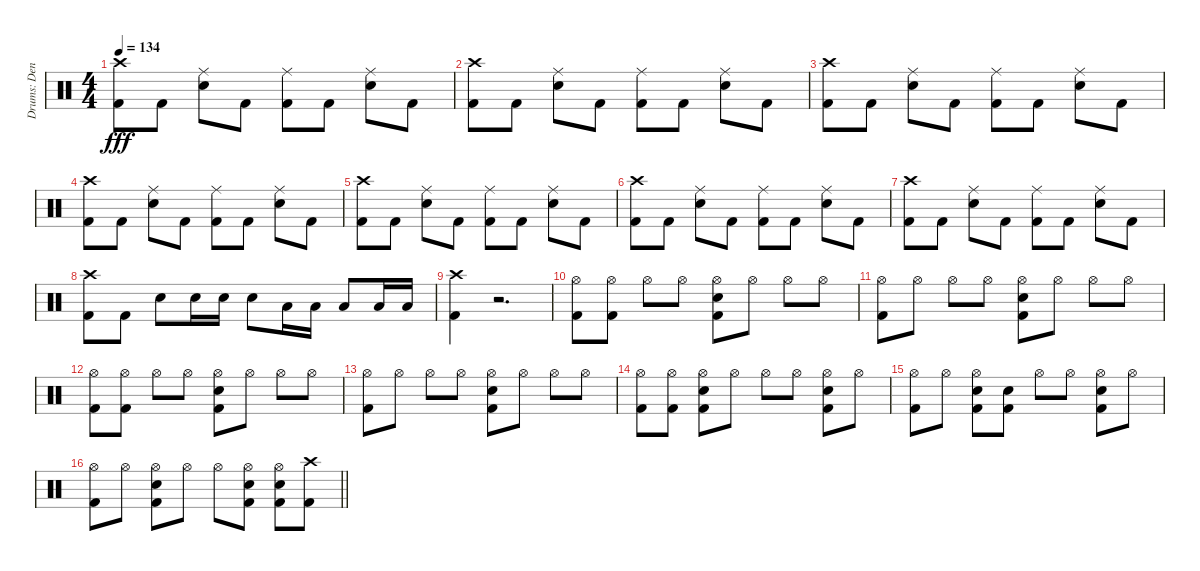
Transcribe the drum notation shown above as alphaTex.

\track ("Drums: Denny" "Drums: Den") {instrument percussion}
\staff {score}
\articulation defaults
\ts (4 4)
\tempo 134
\clef neutral
\ks c
("Crash high (hit)" "Kick (hit) 2").8{dy fff} "Kick (hit) 2".8 ("Ride (middle)" "Snare (hit) 2").8 "Kick (hit) 2".8 ("Ride (middle)" "Kick (hit) 2").8 "Kick (hit) 2".8 ("Ride (middle)" "Snare (hit) 2").8 "Kick (hit) 2".8 |
("Crash high (hit)" "Kick (hit) 2").8 "Kick (hit) 2".8 ("Ride (middle)" "Snare (hit) 2").8 "Kick (hit) 2".8 ("Ride (middle)" "Kick (hit) 2").8 "Kick (hit) 2".8 ("Ride (middle)" "Snare (hit) 2").8 "Kick (hit) 2".8 |
("Crash high (hit)" "Kick (hit) 2").8 "Kick (hit) 2".8 ("Ride (middle)" "Snare (hit) 2").8 "Kick (hit) 2".8 ("Ride (middle)" "Kick (hit) 2").8 "Kick (hit) 2".8 ("Ride (middle)" "Snare (hit) 2").8 "Kick (hit) 2".8 |
("Crash high (hit)" "Kick (hit) 2").8 "Kick (hit) 2".8 ("Ride (middle)" "Snare (hit) 2").8 "Kick (hit) 2".8 ("Ride (middle)" "Kick (hit) 2").8 "Kick (hit) 2".8 ("Ride (middle)" "Snare (hit) 2").8 "Kick (hit) 2".8 |
("Crash high (hit)" "Kick (hit) 2").8 "Kick (hit) 2".8 ("Ride (middle)" "Snare (hit) 2").8 "Kick (hit) 2".8 ("Ride (middle)" "Kick (hit) 2").8 "Kick (hit) 2".8 ("Ride (middle)" "Snare (hit) 2").8 "Kick (hit) 2".8 |
("Crash high (hit)" "Kick (hit) 2").8 "Kick (hit) 2".8 ("Ride (middle)" "Snare (hit) 2").8 "Kick (hit) 2".8 ("Ride (middle)" "Kick (hit) 2").8 "Kick (hit) 2".8 ("Ride (middle)" "Snare (hit) 2").8 "Kick (hit) 2".8 |
("Crash high (hit)" "Kick (hit) 2").8 "Kick (hit) 2".8 ("Ride (middle)" "Snare (hit) 2").8 "Kick (hit) 2".8 ("Ride (middle)" "Kick (hit) 2").8 "Kick (hit) 2".8 ("Ride (middle)" "Snare (hit) 2").8 "Kick (hit) 2".8 |
("Crash high (hit)" "Kick (hit) 2").8 "Kick (hit) 2".8 "Snare (hit) 2".8 "Snare (hit) 2".16 "Snare (hit) 2".16 "Snare (hit) 2".8 "Low Tom (hit)".16 "Low Tom (hit)".16 "Low Tom (hit)".8 "Low Floor Tom (hit)".16 "Low Floor Tom (hit)".16 |
("Crash high (hit)" "Kick (hit) 2").4 r.2{d} |
("Hi-Hat (open)" "Kick (hit) 2").8 ("Hi-Hat (open)" "Kick (hit) 2").8 "Hi-Hat (open)".8 "Hi-Hat (open)".8 ("Hi-Hat (open)" "Snare (hit) 2" "Kick (hit) 2").8 "Hi-Hat (open)".8 "Hi-Hat (open)".8 "Hi-Hat (open)".8 |
("Hi-Hat (open)" "Kick (hit) 2").8 "Hi-Hat (open)".8 "Hi-Hat (open)".8 "Hi-Hat (open)".8 ("Hi-Hat (open)" "Snare (hit) 2" "Kick (hit) 2").8 "Hi-Hat (open)".8 "Hi-Hat (open)".8 "Hi-Hat (open)".8 |
("Hi-Hat (open)" "Kick (hit) 2").8 ("Hi-Hat (open)" "Kick (hit) 2").8 "Hi-Hat (open)".8 "Hi-Hat (open)".8 ("Hi-Hat (open)" "Snare (hit) 2" "Kick (hit) 2").8 "Hi-Hat (open)".8 "Hi-Hat (open)".8 "Hi-Hat (open)".8 |
("Hi-Hat (open)" "Kick (hit) 2").8 "Hi-Hat (open)".8 "Hi-Hat (open)".8 "Hi-Hat (open)".8 ("Hi-Hat (open)" "Snare (hit) 2" "Kick (hit) 2").8 "Hi-Hat (open)".8 "Hi-Hat (open)".8 "Hi-Hat (open)".8 |
("Hi-Hat (open)" "Kick (hit) 2").8 ("Hi-Hat (open)" "Kick (hit) 2").8 ("Hi-Hat (open)" "Snare (hit) 2" "Kick (hit) 2").8 "Hi-Hat (open)".8 "Hi-Hat (open)".8 "Hi-Hat (open)".8 ("Hi-Hat (open)" "Snare (hit) 2" "Kick (hit) 2").8 "Hi-Hat (open)".8 |
("Hi-Hat (open)" "Kick (hit) 2").8 "Hi-Hat (open)".8 ("Hi-Hat (open)" "Snare (hit) 2" "Kick (hit) 2").8 ("Snare (hit) 2" "Kick (hit) 2").8 "Hi-Hat (open)".8 "Hi-Hat (open)".8 ("Hi-Hat (open)" "Snare (hit) 2" "Kick (hit) 2").8 "Hi-Hat (open)".8 |
\barLineRight lightlight
("Hi-Hat (open)" "Kick (hit) 2").8 "Hi-Hat (open)".8 ("Hi-Hat (open)" "Snare (hit) 2" "Kick (hit) 2").8 "Hi-Hat (open)".8 "Hi-Hat (open)".8 ("Hi-Hat (open)" "Snare (hit) 2" "Kick (hit) 2").8 ("Hi-Hat (open)" "Snare (hit) 2" "Kick (hit) 2").8 ("Crash high (hit)" "Kick (hit) 2").8
